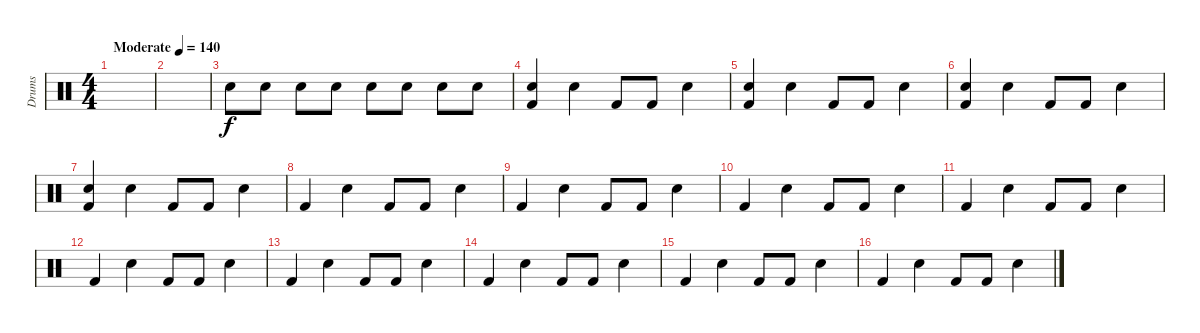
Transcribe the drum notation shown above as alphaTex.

\track ("Drums" "Drums") {instrument percussion}
\staff {score}
\articulation defaults
\ts (4 4)
\tempo (140 "Moderate")
\clef neutral
\ks c
|
|
"Snare (hit) 2".8 "Snare (hit) 2".8 "Snare (hit) 2".8 "Snare (hit) 2".8 "Snare (hit) 2".8 "Snare (hit) 2".8 "Snare (hit) 2".8 "Snare (hit) 2".8 |
("Kick (hit) 2" "Snare (hit) 2").4 "Snare (hit) 2".4 "Kick (hit) 2".8 "Kick (hit) 2".8 "Snare (hit) 2".4 |
("Kick (hit) 2" "Snare (hit) 2").4 "Snare (hit) 2".4 "Kick (hit) 2".8 "Kick (hit) 2".8 "Snare (hit) 2".4 |
("Kick (hit) 2" "Snare (hit) 2").4 "Snare (hit) 2".4 "Kick (hit) 2".8 "Kick (hit) 2".8 "Snare (hit) 2".4 |
("Kick (hit) 2" "Snare (hit) 2").4 "Snare (hit) 2".4 "Kick (hit) 2".8 "Kick (hit) 2".8 "Snare (hit) 2".4 |
"Kick (hit) 2".4 "Snare (hit) 2".4 "Kick (hit) 2".8 "Kick (hit) 2".8 "Snare (hit) 2".4 |
"Kick (hit) 2".4 "Snare (hit) 2".4 "Kick (hit) 2".8 "Kick (hit) 2".8 "Snare (hit) 2".4 |
"Kick (hit) 2".4 "Snare (hit) 2".4 "Kick (hit) 2".8 "Kick (hit) 2".8 "Snare (hit) 2".4 |
"Kick (hit) 2".4 "Snare (hit) 2".4 "Kick (hit) 2".8 "Kick (hit) 2".8 "Snare (hit) 2".4 |
"Kick (hit) 2".4 "Snare (hit) 2".4 "Kick (hit) 2".8 "Kick (hit) 2".8 "Snare (hit) 2".4 |
"Kick (hit) 2".4 "Snare (hit) 2".4 "Kick (hit) 2".8 "Kick (hit) 2".8 "Snare (hit) 2".4 |
"Kick (hit) 2".4 "Snare (hit) 2".4 "Kick (hit) 2".8 "Kick (hit) 2".8 "Snare (hit) 2".4 |
"Kick (hit) 2".4 "Snare (hit) 2".4 "Kick (hit) 2".8 "Kick (hit) 2".8 "Snare (hit) 2".4 |
"Kick (hit) 2".4 "Snare (hit) 2".4 "Kick (hit) 2".8 "Kick (hit) 2".8 "Snare (hit) 2".4
